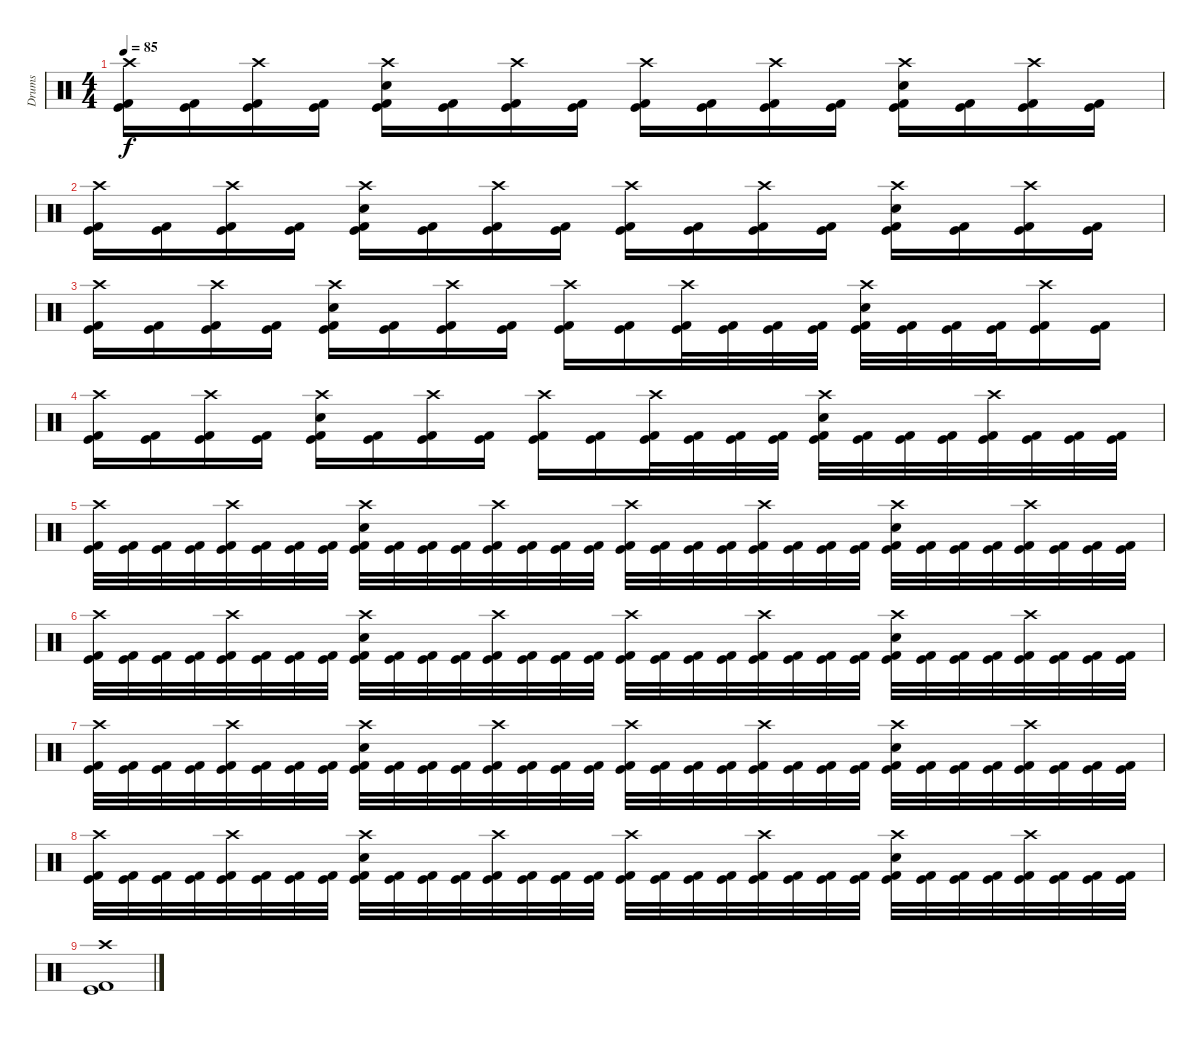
\track ("Drums" "Drums") {instrument percussion}
\staff {score}
\articulation defaults
\ts (4 4)
\tempo 85
\clef neutral
\ks c
("Crash high (hit)" "Kick (hit) 2" "Kick (hit)").16{dy f} ("Kick (hit) 2" "Kick (hit)").16 ("Crash high (hit)" "Kick (hit) 2" "Kick (hit)").16 ("Kick (hit) 2" "Kick (hit)").16 ("Crash high (hit)" "Snare (hit) 2" "Kick (hit) 2" "Kick (hit)").16 ("Kick (hit) 2" "Kick (hit)").16 ("Crash high (hit)" "Kick (hit) 2" "Kick (hit)").16 ("Kick (hit) 2" "Kick (hit)").16 ("Crash high (hit)" "Kick (hit) 2" "Kick (hit)").16 ("Kick (hit) 2" "Kick (hit)").16 ("Crash high (hit)" "Kick (hit) 2" "Kick (hit)").16 ("Kick (hit) 2" "Kick (hit)").16 ("Crash high (hit)" "Snare (hit) 2" "Kick (hit) 2" "Kick (hit)").16 ("Kick (hit) 2" "Kick (hit)").16 ("Crash high (hit)" "Kick (hit) 2" "Kick (hit)").16 ("Kick (hit) 2" "Kick (hit)").16 |
("Crash high (hit)" "Kick (hit) 2" "Kick (hit)").16 ("Kick (hit) 2" "Kick (hit)").16 ("Crash high (hit)" "Kick (hit) 2" "Kick (hit)").16 ("Kick (hit) 2" "Kick (hit)").16 ("Crash high (hit)" "Snare (hit) 2" "Kick (hit) 2" "Kick (hit)").16 ("Kick (hit) 2" "Kick (hit)").16 ("Crash high (hit)" "Kick (hit) 2" "Kick (hit)").16 ("Kick (hit) 2" "Kick (hit)").16 ("Crash high (hit)" "Kick (hit) 2" "Kick (hit)").16 ("Kick (hit) 2" "Kick (hit)").16 ("Crash high (hit)" "Kick (hit) 2" "Kick (hit)").16 ("Kick (hit) 2" "Kick (hit)").16 ("Crash high (hit)" "Snare (hit) 2" "Kick (hit) 2" "Kick (hit)").16 ("Kick (hit) 2" "Kick (hit)").16 ("Crash high (hit)" "Kick (hit) 2" "Kick (hit)").16 ("Kick (hit) 2" "Kick (hit)").16 |
("Crash high (hit)" "Kick (hit) 2" "Kick (hit)").16 ("Kick (hit) 2" "Kick (hit)").16 ("Crash high (hit)" "Kick (hit) 2" "Kick (hit)").16 ("Kick (hit) 2" "Kick (hit)").16 ("Crash high (hit)" "Snare (hit) 2" "Kick (hit) 2" "Kick (hit)").16 ("Kick (hit) 2" "Kick (hit)").16 ("Crash high (hit)" "Kick (hit) 2" "Kick (hit)").16 ("Kick (hit) 2" "Kick (hit)").16 ("Crash high (hit)" "Kick (hit) 2" "Kick (hit)").16 ("Kick (hit) 2" "Kick (hit)").16 ("Crash high (hit)" "Kick (hit) 2" "Kick (hit)").32 ("Kick (hit) 2" "Kick (hit)").32 ("Kick (hit) 2" "Kick (hit)").32 ("Kick (hit) 2" "Kick (hit)").32 ("Crash high (hit)" "Snare (hit) 2" "Kick (hit) 2" "Kick (hit)").32 ("Kick (hit) 2" "Kick (hit)").32 ("Kick (hit) 2" "Kick (hit)").32 ("Kick (hit) 2" "Kick (hit)").32 ("Crash high (hit)" "Kick (hit) 2" "Kick (hit)").16 ("Kick (hit) 2" "Kick (hit)").16 |
("Crash high (hit)" "Kick (hit) 2" "Kick (hit)").16 ("Kick (hit) 2" "Kick (hit)").16 ("Crash high (hit)" "Kick (hit) 2" "Kick (hit)").16 ("Kick (hit) 2" "Kick (hit)").16 ("Crash high (hit)" "Snare (hit) 2" "Kick (hit) 2" "Kick (hit)").16 ("Kick (hit) 2" "Kick (hit)").16 ("Crash high (hit)" "Kick (hit) 2" "Kick (hit)").16 ("Kick (hit) 2" "Kick (hit)").16 ("Crash high (hit)" "Kick (hit) 2" "Kick (hit)").16 ("Kick (hit) 2" "Kick (hit)").16 ("Crash high (hit)" "Kick (hit) 2" "Kick (hit)").32 ("Kick (hit) 2" "Kick (hit)").32 ("Kick (hit) 2" "Kick (hit)").32 ("Kick (hit) 2" "Kick (hit)").32 ("Crash high (hit)" "Snare (hit) 2" "Kick (hit) 2" "Kick (hit)").32 ("Kick (hit) 2" "Kick (hit)").32 ("Kick (hit) 2" "Kick (hit)").32 ("Kick (hit) 2" "Kick (hit)").32 ("Crash high (hit)" "Kick (hit) 2" "Kick (hit)").32 ("Kick (hit) 2" "Kick (hit)").32 ("Kick (hit) 2" "Kick (hit)").32 ("Kick (hit) 2" "Kick (hit)").32 |
("Crash high (hit)" "Kick (hit) 2" "Kick (hit)").32 ("Kick (hit) 2" "Kick (hit)").32 ("Kick (hit) 2" "Kick (hit)").32 ("Kick (hit) 2" "Kick (hit)").32 ("Crash high (hit)" "Kick (hit) 2" "Kick (hit)").32 ("Kick (hit) 2" "Kick (hit)").32 ("Kick (hit) 2" "Kick (hit)").32 ("Kick (hit) 2" "Kick (hit)").32 ("Crash high (hit)" "Snare (hit) 2" "Kick (hit) 2" "Kick (hit)").32 ("Kick (hit) 2" "Kick (hit)").32 ("Kick (hit) 2" "Kick (hit)").32 ("Kick (hit) 2" "Kick (hit)").32 ("Crash high (hit)" "Kick (hit) 2" "Kick (hit)").32 ("Kick (hit) 2" "Kick (hit)").32 ("Kick (hit) 2" "Kick (hit)").32 ("Kick (hit) 2" "Kick (hit)").32 ("Crash high (hit)" "Kick (hit) 2" "Kick (hit)").32 ("Kick (hit) 2" "Kick (hit)").32 ("Kick (hit) 2" "Kick (hit)").32 ("Kick (hit) 2" "Kick (hit)").32 ("Crash high (hit)" "Kick (hit) 2" "Kick (hit)").32 ("Kick (hit) 2" "Kick (hit)").32 ("Kick (hit) 2" "Kick (hit)").32 ("Kick (hit) 2" "Kick (hit)").32 ("Crash high (hit)" "Snare (hit) 2" "Kick (hit) 2" "Kick (hit)").32 ("Kick (hit) 2" "Kick (hit)").32 ("Kick (hit) 2" "Kick (hit)").32 ("Kick (hit) 2" "Kick (hit)").32 ("Crash high (hit)" "Kick (hit) 2" "Kick (hit)").32 ("Kick (hit) 2" "Kick (hit)").32 ("Kick (hit) 2" "Kick (hit)").32 ("Kick (hit) 2" "Kick (hit)").32 |
("Crash high (hit)" "Kick (hit) 2" "Kick (hit)").32 ("Kick (hit) 2" "Kick (hit)").32 ("Kick (hit) 2" "Kick (hit)").32 ("Kick (hit) 2" "Kick (hit)").32 ("Crash high (hit)" "Kick (hit) 2" "Kick (hit)").32 ("Kick (hit) 2" "Kick (hit)").32 ("Kick (hit) 2" "Kick (hit)").32 ("Kick (hit) 2" "Kick (hit)").32 ("Crash high (hit)" "Snare (hit) 2" "Kick (hit) 2" "Kick (hit)").32 ("Kick (hit) 2" "Kick (hit)").32 ("Kick (hit) 2" "Kick (hit)").32 ("Kick (hit) 2" "Kick (hit)").32 ("Crash high (hit)" "Kick (hit) 2" "Kick (hit)").32 ("Kick (hit) 2" "Kick (hit)").32 ("Kick (hit) 2" "Kick (hit)").32 ("Kick (hit) 2" "Kick (hit)").32 ("Crash high (hit)" "Kick (hit) 2" "Kick (hit)").32 ("Kick (hit) 2" "Kick (hit)").32 ("Kick (hit) 2" "Kick (hit)").32 ("Kick (hit) 2" "Kick (hit)").32 ("Crash high (hit)" "Kick (hit) 2" "Kick (hit)").32 ("Kick (hit) 2" "Kick (hit)").32 ("Kick (hit) 2" "Kick (hit)").32 ("Kick (hit) 2" "Kick (hit)").32 ("Crash high (hit)" "Snare (hit) 2" "Kick (hit) 2" "Kick (hit)").32 ("Kick (hit) 2" "Kick (hit)").32 ("Kick (hit) 2" "Kick (hit)").32 ("Kick (hit) 2" "Kick (hit)").32 ("Crash high (hit)" "Kick (hit) 2" "Kick (hit)").32 ("Kick (hit) 2" "Kick (hit)").32 ("Kick (hit) 2" "Kick (hit)").32 ("Kick (hit) 2" "Kick (hit)").32 |
("Crash high (hit)" "Kick (hit) 2" "Kick (hit)").32 ("Kick (hit) 2" "Kick (hit)").32 ("Kick (hit) 2" "Kick (hit)").32 ("Kick (hit) 2" "Kick (hit)").32 ("Crash high (hit)" "Kick (hit) 2" "Kick (hit)").32 ("Kick (hit) 2" "Kick (hit)").32 ("Kick (hit) 2" "Kick (hit)").32 ("Kick (hit) 2" "Kick (hit)").32 ("Crash high (hit)" "Snare (hit) 2" "Kick (hit) 2" "Kick (hit)").32 ("Kick (hit) 2" "Kick (hit)").32 ("Kick (hit) 2" "Kick (hit)").32 ("Kick (hit) 2" "Kick (hit)").32 ("Crash high (hit)" "Kick (hit) 2" "Kick (hit)").32 ("Kick (hit) 2" "Kick (hit)").32 ("Kick (hit) 2" "Kick (hit)").32 ("Kick (hit) 2" "Kick (hit)").32 ("Crash high (hit)" "Kick (hit) 2" "Kick (hit)").32 ("Kick (hit) 2" "Kick (hit)").32 ("Kick (hit) 2" "Kick (hit)").32 ("Kick (hit) 2" "Kick (hit)").32 ("Crash high (hit)" "Kick (hit) 2" "Kick (hit)").32 ("Kick (hit) 2" "Kick (hit)").32 ("Kick (hit) 2" "Kick (hit)").32 ("Kick (hit) 2" "Kick (hit)").32 ("Crash high (hit)" "Snare (hit) 2" "Kick (hit) 2" "Kick (hit)").32 ("Kick (hit) 2" "Kick (hit)").32 ("Kick (hit) 2" "Kick (hit)").32 ("Kick (hit) 2" "Kick (hit)").32 ("Crash high (hit)" "Kick (hit) 2" "Kick (hit)").32 ("Kick (hit) 2" "Kick (hit)").32 ("Kick (hit) 2" "Kick (hit)").32 ("Kick (hit) 2" "Kick (hit)").32 |
("Crash high (hit)" "Kick (hit) 2" "Kick (hit)").32 ("Kick (hit) 2" "Kick (hit)").32 ("Kick (hit) 2" "Kick (hit)").32 ("Kick (hit) 2" "Kick (hit)").32 ("Crash high (hit)" "Kick (hit) 2" "Kick (hit)").32 ("Kick (hit) 2" "Kick (hit)").32 ("Kick (hit) 2" "Kick (hit)").32 ("Kick (hit) 2" "Kick (hit)").32 ("Crash high (hit)" "Snare (hit) 2" "Kick (hit) 2" "Kick (hit)").32 ("Kick (hit) 2" "Kick (hit)").32 ("Kick (hit) 2" "Kick (hit)").32 ("Kick (hit) 2" "Kick (hit)").32 ("Crash high (hit)" "Kick (hit) 2" "Kick (hit)").32 ("Kick (hit) 2" "Kick (hit)").32 ("Kick (hit) 2" "Kick (hit)").32 ("Kick (hit) 2" "Kick (hit)").32 ("Crash high (hit)" "Kick (hit) 2" "Kick (hit)").32 ("Kick (hit) 2" "Kick (hit)").32 ("Kick (hit) 2" "Kick (hit)").32 ("Kick (hit) 2" "Kick (hit)").32 ("Crash high (hit)" "Kick (hit) 2" "Kick (hit)").32 ("Kick (hit) 2" "Kick (hit)").32 ("Kick (hit) 2" "Kick (hit)").32 ("Kick (hit) 2" "Kick (hit)").32 ("Crash high (hit)" "Snare (hit) 2" "Kick (hit) 2" "Kick (hit)").32 ("Kick (hit) 2" "Kick (hit)").32 ("Kick (hit) 2" "Kick (hit)").32 ("Kick (hit) 2" "Kick (hit)").32 ("Crash high (hit)" "Kick (hit) 2" "Kick (hit)").32 ("Kick (hit) 2" "Kick (hit)").32 ("Kick (hit) 2" "Kick (hit)").32 ("Kick (hit) 2" "Kick (hit)").32 |
("Crash high (hit)" "Kick (hit) 2" "Kick (hit)").1
